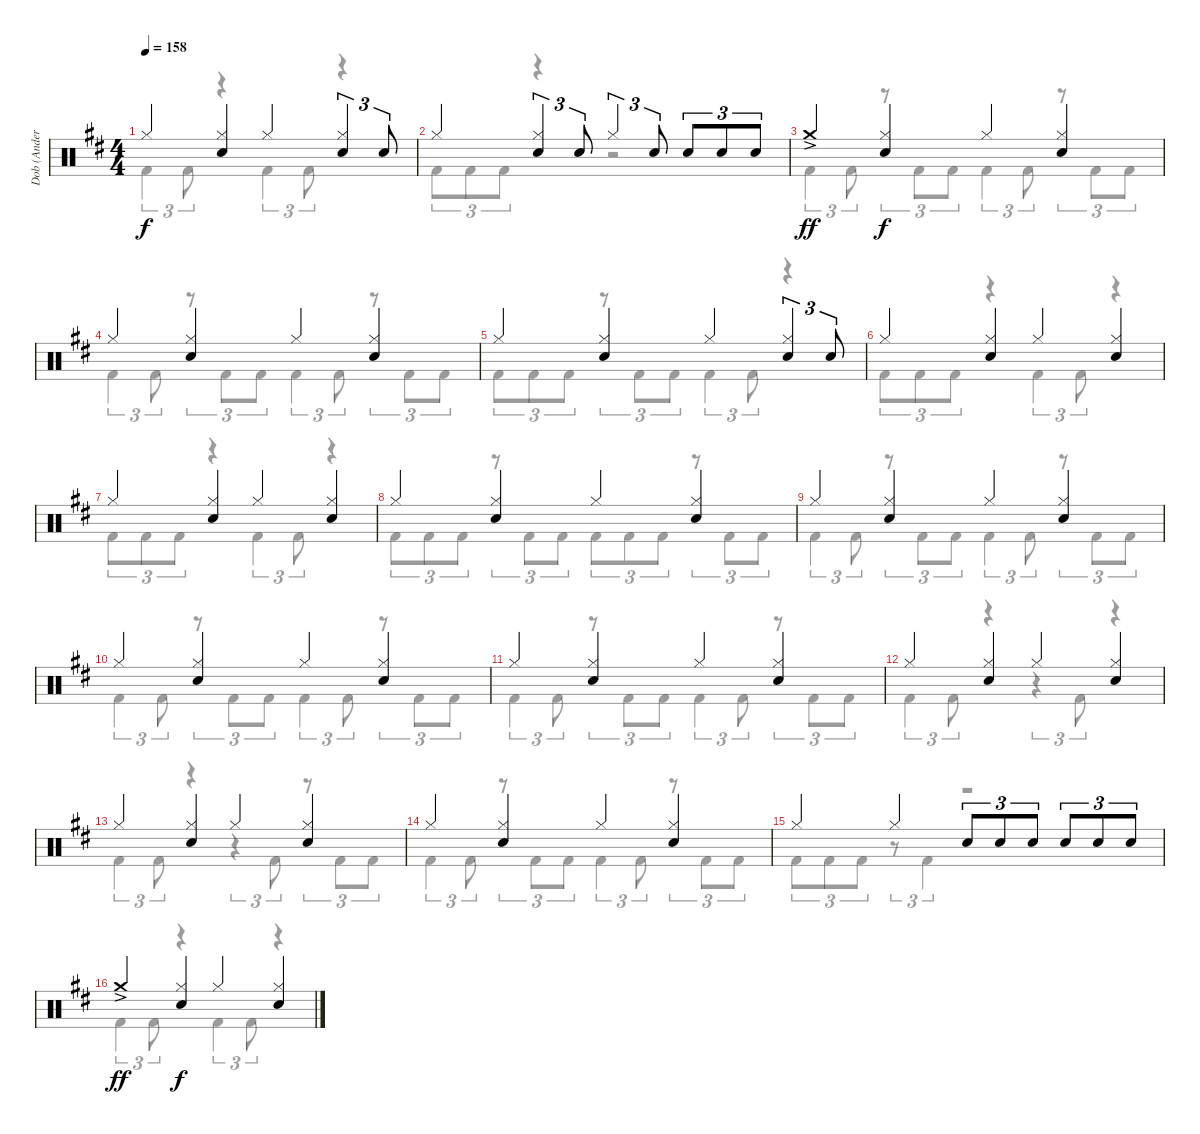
\track ("Dob (Anders Johansson)" "Dob (Ander") {instrument percussion}
\staff {score}
\articulation defaults
\voice
\ts (4 4)
\tempo 158
\clef neutral
\ks d "Hi-Hat (closed)".4{dy f}
("Hi-Hat (closed)" "Electric Snare (hit)").4 "Hi-Hat (closed)".4 ("Hi-Hat (closed)" "Electric Snare (hit)").4{tu (3 2)} "Electric Snare (hit)".8{tu (3 2)} |
"Hi-Hat (closed)".4 ("Hi-Hat (closed)" "Electric Snare (hit)").4{tu (3 2)} "Electric Snare (hit)".8{tu (3 2)} "Hi-Hat (closed)".4{tu (3 2)} "Electric Snare (hit)".8{tu (3 2)} "Electric Snare (hit)".8{tu (3 2)} "Electric Snare (hit)".8{tu (3 2)} "Electric Snare (hit)".8{tu (3 2)} |
"Crash medium (hit)"{ac}.4{dy ff} ("Hi-Hat (closed)" "Electric Snare (hit)").4{dy f} "Hi-Hat (closed)".4 ("Hi-Hat (closed)" "Electric Snare (hit)").4 |
"Hi-Hat (closed)".4 ("Hi-Hat (closed)" "Electric Snare (hit)").4 "Hi-Hat (closed)".4 ("Hi-Hat (closed)" "Electric Snare (hit)").4 |
"Hi-Hat (closed)".4 ("Hi-Hat (closed)" "Electric Snare (hit)").4 "Hi-Hat (closed)".4 ("Hi-Hat (closed)" "Electric Snare (hit)").4{tu (3 2)} "Electric Snare (hit)".8{tu (3 2)} |
"Hi-Hat (closed)".4 ("Hi-Hat (closed)" "Electric Snare (hit)").4 "Hi-Hat (closed)".4 ("Hi-Hat (closed)" "Electric Snare (hit)").4 |
"Hi-Hat (closed)".4 ("Hi-Hat (closed)" "Electric Snare (hit)").4 "Hi-Hat (closed)".4 ("Hi-Hat (closed)" "Electric Snare (hit)").4 |
"Hi-Hat (closed)".4 ("Hi-Hat (closed)" "Electric Snare (hit)").4 "Hi-Hat (closed)".4 ("Hi-Hat (closed)" "Electric Snare (hit)").4 |
"Hi-Hat (closed)".4 ("Hi-Hat (closed)" "Electric Snare (hit)").4 "Hi-Hat (closed)".4 ("Hi-Hat (closed)" "Electric Snare (hit)").4 |
"Hi-Hat (closed)".4 ("Hi-Hat (closed)" "Electric Snare (hit)").4 "Hi-Hat (closed)".4 ("Hi-Hat (closed)" "Electric Snare (hit)").4 |
"Hi-Hat (closed)".4 ("Hi-Hat (closed)" "Electric Snare (hit)").4 "Hi-Hat (closed)".4 ("Hi-Hat (closed)" "Electric Snare (hit)").4 |
"Hi-Hat (closed)".4 ("Hi-Hat (closed)" "Electric Snare (hit)").4 "Hi-Hat (closed)".4 ("Hi-Hat (closed)" "Electric Snare (hit)").4 |
"Hi-Hat (closed)".4 ("Hi-Hat (closed)" "Electric Snare (hit)").4 "Hi-Hat (closed)".4 ("Hi-Hat (closed)" "Electric Snare (hit)").4 |
"Hi-Hat (closed)".4 ("Hi-Hat (closed)" "Electric Snare (hit)").4 "Hi-Hat (closed)".4 ("Hi-Hat (closed)" "Electric Snare (hit)").4 |
"Hi-Hat (closed)".4 "Hi-Hat (closed)".4 "Electric Snare (hit)".8{tu (3 2)} "Electric Snare (hit)".8{tu (3 2)} "Electric Snare (hit)".8{tu (3 2)} "Electric Snare (hit)".8{tu (3 2)} "Electric Snare (hit)".8{tu (3 2)} "Electric Snare (hit)".8{tu (3 2)} |
"Crash medium (hit)"{ac}.4{dy ff} ("Hi-Hat (closed)" "Electric Snare (hit)").4{dy f} "Hi-Hat (closed)".4 ("Hi-Hat (closed)" "Electric Snare (hit)").4
\voice
\clef neutral
\ottava regular
\simile none
\ks d "Kick (hit) 2".4{tu (3 2) dy f} "Kick (hit) 2".8{tu (3 2)}
r.4 "Kick (hit) 2".4{tu (3 2)} "Kick (hit) 2".8{tu (3 2)} r.4 |
"Kick (hit) 2".8{tu (3 2)} "Kick (hit) 2".8{tu (3 2)} "Kick (hit) 2".8{tu (3 2)} r.4 r.2 |
"Kick (hit) 2".4{tu (3 2)} "Kick (hit) 2".8{tu (3 2)} r.8{tu (3 2)} "Kick (hit) 2".8{tu (3 2)} "Kick (hit) 2".8{tu (3 2)} "Kick (hit) 2".4{tu (3 2)} "Kick (hit) 2".8{tu (3 2)} r.8{tu (3 2)} "Kick (hit) 2".8{tu (3 2)} "Kick (hit) 2".8{tu (3 2)} |
"Kick (hit) 2".4{tu (3 2)} "Kick (hit) 2".8{tu (3 2)} r.8{tu (3 2)} "Kick (hit) 2".8{tu (3 2)} "Kick (hit) 2".8{tu (3 2)} "Kick (hit) 2".4{tu (3 2)} "Kick (hit) 2".8{tu (3 2)} r.8{tu (3 2)} "Kick (hit) 2".8{tu (3 2)} "Kick (hit) 2".8{tu (3 2)} |
"Kick (hit) 2".8{tu (3 2)} "Kick (hit) 2".8{tu (3 2)} "Kick (hit) 2".8{tu (3 2)} r.8{tu (3 2)} "Kick (hit) 2".8{tu (3 2)} "Kick (hit) 2".8{tu (3 2)} "Kick (hit) 2".4{tu (3 2)} "Kick (hit) 2".8{tu (3 2)} r.4 |
"Kick (hit) 2".8{tu (3 2)} "Kick (hit) 2".8{tu (3 2)} "Kick (hit) 2".8{tu (3 2)} r.4 "Kick (hit) 2".4{tu (3 2)} "Kick (hit) 2".8{tu (3 2)} r.4 |
"Kick (hit) 2".8{tu (3 2)} "Kick (hit) 2".8{tu (3 2)} "Kick (hit) 2".8{tu (3 2)} r.4 "Kick (hit) 2".4{tu (3 2)} "Kick (hit) 2".8{tu (3 2)} r.4 |
"Kick (hit) 2".8{tu (3 2)} "Kick (hit) 2".8{tu (3 2)} "Kick (hit) 2".8{tu (3 2)} r.8{tu (3 2)} "Kick (hit) 2".8{tu (3 2)} "Kick (hit) 2".8{tu (3 2)} "Kick (hit) 2".8{tu (3 2)} "Kick (hit) 2".8{tu (3 2)} "Kick (hit) 2".8{tu (3 2)} r.8{tu (3 2)} "Kick (hit) 2".8{tu (3 2)} "Kick (hit) 2".8{tu (3 2)} |
"Kick (hit) 2".4{tu (3 2)} "Kick (hit) 2".8{tu (3 2)} r.8{tu (3 2)} "Kick (hit) 2".8{tu (3 2)} "Kick (hit) 2".8{tu (3 2)} "Kick (hit) 2".4{tu (3 2)} "Kick (hit) 2".8{tu (3 2)} r.8{tu (3 2)} "Kick (hit) 2".8{tu (3 2)} "Kick (hit) 2".8{tu (3 2)} |
"Kick (hit) 2".4{tu (3 2)} "Kick (hit) 2".8{tu (3 2)} r.8{tu (3 2)} "Kick (hit) 2".8{tu (3 2)} "Kick (hit) 2".8{tu (3 2)} "Kick (hit) 2".4{tu (3 2)} "Kick (hit) 2".8{tu (3 2)} r.8{tu (3 2)} "Kick (hit) 2".8{tu (3 2)} "Kick (hit) 2".8{tu (3 2)} |
"Kick (hit) 2".4{tu (3 2)} "Kick (hit) 2".8{tu (3 2)} r.8{tu (3 2)} "Kick (hit) 2".8{tu (3 2)} "Kick (hit) 2".8{tu (3 2)} "Kick (hit) 2".4{tu (3 2)} "Kick (hit) 2".8{tu (3 2)} r.8{tu (3 2)} "Kick (hit) 2".8{tu (3 2)} "Kick (hit) 2".8{tu (3 2)} |
"Kick (hit) 2".4{tu (3 2)} "Kick (hit) 2".8{tu (3 2)} r.4 r.4{tu (3 2)} "Kick (hit) 2".8{tu (3 2)} r.4 |
"Kick (hit) 2".4{tu (3 2)} "Kick (hit) 2".8{tu (3 2)} r.4 r.4{tu (3 2)} "Kick (hit) 2".8{tu (3 2)} r.8{tu (3 2)} "Kick (hit) 2".8{tu (3 2)} "Kick (hit) 2".8{tu (3 2)} |
"Kick (hit) 2".4{tu (3 2)} "Kick (hit) 2".8{tu (3 2)} r.8{tu (3 2)} "Kick (hit) 2".8{tu (3 2)} "Kick (hit) 2".8{tu (3 2)} "Kick (hit) 2".4{tu (3 2)} "Kick (hit) 2".8{tu (3 2)} r.8{tu (3 2)} "Kick (hit) 2".8{tu (3 2)} "Kick (hit) 2".8{tu (3 2)} |
"Kick (hit) 2".8{tu (3 2)} "Kick (hit) 2".8{tu (3 2)} "Kick (hit) 2".8{tu (3 2)} r.8{tu (3 2)} "Kick (hit) 2".4{tu (3 2)} r.2 |
"Kick (hit) 2".4{tu (3 2)} "Kick (hit) 2".8{tu (3 2)} r.4 "Kick (hit) 2".4{tu (3 2)} "Kick (hit) 2".8{tu (3 2)} r.4
